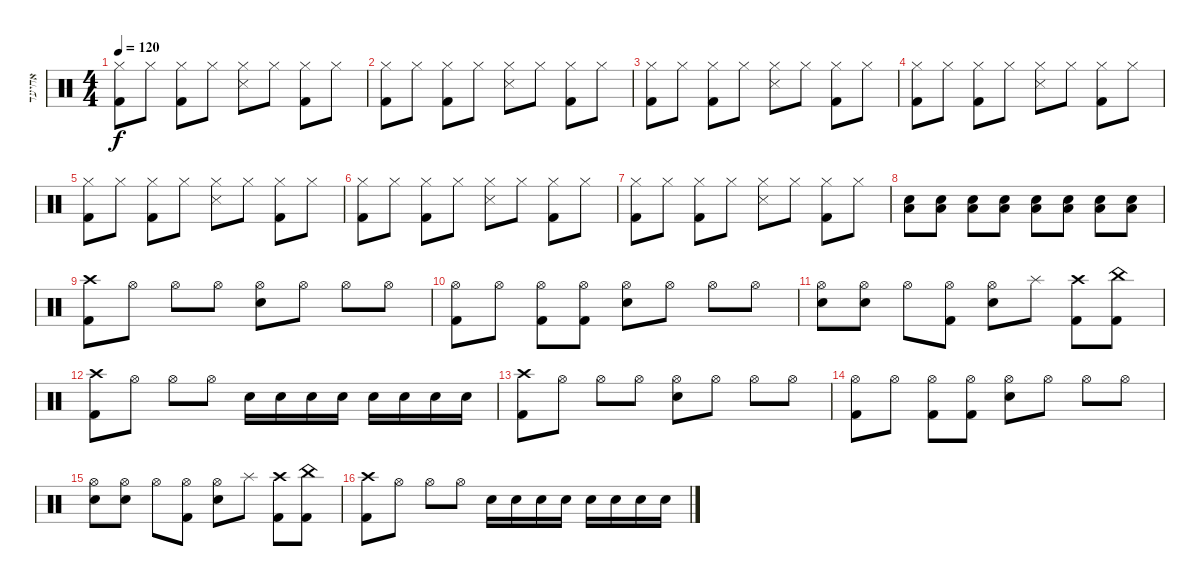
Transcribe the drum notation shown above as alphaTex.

\track ("אחיעד" "אחיעד") {instrument percussion}
\staff {score}
\articulation defaults
\ts (4 4)
\tempo 120
\clef neutral
\ks c
("Hi-Hat (closed)" "Kick (hit) 2").8{dy f} "Hi-Hat (closed)".8 ("Hi-Hat (closed)" "Kick (hit) 2").8 "Hi-Hat (closed)".8 ("Hi-Hat (closed)" "Snare (side stick) 3").8 "Hi-Hat (closed)".8 ("Hi-Hat (closed)" "Kick (hit) 2").8 "Hi-Hat (closed)".8 |
("Hi-Hat (closed)" "Kick (hit) 2").8 "Hi-Hat (closed)".8 ("Hi-Hat (closed)" "Kick (hit) 2").8 "Hi-Hat (closed)".8 ("Hi-Hat (closed)" "Snare (side stick) 3").8 "Hi-Hat (closed)".8 ("Hi-Hat (closed)" "Kick (hit) 2").8 "Hi-Hat (closed)".8 |
("Hi-Hat (closed)" "Kick (hit) 2").8 "Hi-Hat (closed)".8 ("Hi-Hat (closed)" "Kick (hit) 2").8 "Hi-Hat (closed)".8 ("Hi-Hat (closed)" "Snare (side stick) 3").8 "Hi-Hat (closed)".8 ("Hi-Hat (closed)" "Kick (hit) 2").8 "Hi-Hat (closed)".8 |
("Hi-Hat (closed)" "Kick (hit) 2").8 "Hi-Hat (closed)".8 ("Hi-Hat (closed)" "Kick (hit) 2").8 "Hi-Hat (closed)".8 ("Hi-Hat (closed)" "Snare (side stick) 3").8 "Hi-Hat (closed)".8 ("Hi-Hat (closed)" "Kick (hit) 2").8 "Hi-Hat (closed)".8 |
("Hi-Hat (closed)" "Kick (hit) 2").8 "Hi-Hat (closed)".8 ("Hi-Hat (closed)" "Kick (hit) 2").8 "Hi-Hat (closed)".8 ("Hi-Hat (closed)" "Snare (side stick) 3").8 "Hi-Hat (closed)".8 ("Hi-Hat (closed)" "Kick (hit) 2").8 "Hi-Hat (closed)".8 |
("Hi-Hat (closed)" "Kick (hit) 2").8 "Hi-Hat (closed)".8 ("Hi-Hat (closed)" "Kick (hit) 2").8 "Hi-Hat (closed)".8 ("Hi-Hat (closed)" "Snare (side stick) 3").8 "Hi-Hat (closed)".8 ("Hi-Hat (closed)" "Kick (hit) 2").8 "Hi-Hat (closed)".8 |
("Hi-Hat (closed)" "Kick (hit) 2").8 "Hi-Hat (closed)".8 ("Hi-Hat (closed)" "Kick (hit) 2").8 "Hi-Hat (closed)".8 ("Hi-Hat (closed)" "Snare (side stick) 3").8 "Hi-Hat (closed)".8 ("Hi-Hat (closed)" "Kick (hit) 2").8 "Hi-Hat (closed)".8 |
("Low Floor Tom (hit)" "Snare (hit) 2").8{volume 3} ("Low Floor Tom (hit)" "Snare (hit) 2").8{volume 4} ("Low Floor Tom (hit)" "Snare (hit) 2").8{volume 6} ("Low Floor Tom (hit)" "Snare (hit) 2").8{volume 8} ("Low Floor Tom (hit)" "Snare (hit) 2").8{volume 10} ("Low Floor Tom (hit)" "Snare (hit) 2").8{volume 12} ("Low Floor Tom (hit)" "Snare (hit) 2").8{volume 13} ("Low Floor Tom (hit)" "Snare (hit) 2").8 |
("Crash high (hit)" "Kick (hit) 2").8 "Hi-Hat (open)".8 "Hi-Hat (open)".8 "Hi-Hat (open)".8 ("Hi-Hat (open)" "Snare (hit) 2").8 "Hi-Hat (open)".8 "Hi-Hat (open)".8 "Hi-Hat (open)".8 |
("Hi-Hat (open)" "Kick (hit) 2").8 "Hi-Hat (open)".8 ("Hi-Hat (open)" "Kick (hit) 2").8 ("Hi-Hat (open)" "Kick (hit) 2").8 ("Hi-Hat (open)" "Snare (hit) 2").8 "Hi-Hat (open)".8 "Hi-Hat (open)".8 "Hi-Hat (open)".8 |
("Hi-Hat (open)" "Snare (hit) 2").8 ("Hi-Hat (open)" "Snare (hit) 2").8 "Hi-Hat (open)".8 ("Hi-Hat (open)" "Kick (hit) 2").8 ("Hi-Hat (open)" "Snare (hit) 2").8 "Splash (hit)".8 ("Crash high (hit)" "Kick (hit) 2").8 ("China (hit)" "Kick (hit) 2").8 |
("Crash high (hit)" "Kick (hit) 2").8 "Hi-Hat (open)".8 "Hi-Hat (open)".8 "Hi-Hat (open)".8 "Snare (hit) 2".16 "Snare (hit) 2".16 "Snare (hit) 2".16 "Snare (hit) 2".16 "Snare (hit) 2".16 "Snare (hit) 2".16 "Snare (hit) 2".16 "Snare (hit) 2".16 |
("Crash high (hit)" "Kick (hit) 2").8 "Hi-Hat (open)".8 "Hi-Hat (open)".8 "Hi-Hat (open)".8 ("Hi-Hat (open)" "Snare (hit) 2").8 "Hi-Hat (open)".8 "Hi-Hat (open)".8 "Hi-Hat (open)".8 |
("Hi-Hat (open)" "Kick (hit) 2").8 "Hi-Hat (open)".8 ("Hi-Hat (open)" "Kick (hit) 2").8 ("Hi-Hat (open)" "Kick (hit) 2").8 ("Hi-Hat (open)" "Snare (hit) 2").8 "Hi-Hat (open)".8 "Hi-Hat (open)".8 "Hi-Hat (open)".8 |
("Hi-Hat (open)" "Snare (hit) 2").8 ("Hi-Hat (open)" "Snare (hit) 2").8 "Hi-Hat (open)".8 ("Hi-Hat (open)" "Kick (hit) 2").8 ("Hi-Hat (open)" "Snare (hit) 2").8 "Splash (hit)".8 ("Crash high (hit)" "Kick (hit) 2").8 ("China (hit)" "Kick (hit) 2").8 |
("Crash high (hit)" "Kick (hit) 2").8 "Hi-Hat (open)".8 "Hi-Hat (open)".8 "Hi-Hat (open)".8 "Snare (hit) 2".16 "Snare (hit) 2".16 "Snare (hit) 2".16 "Snare (hit) 2".16 "Snare (hit) 2".16 "Snare (hit) 2".16 "Snare (hit) 2".16 "Snare (hit) 2".16
